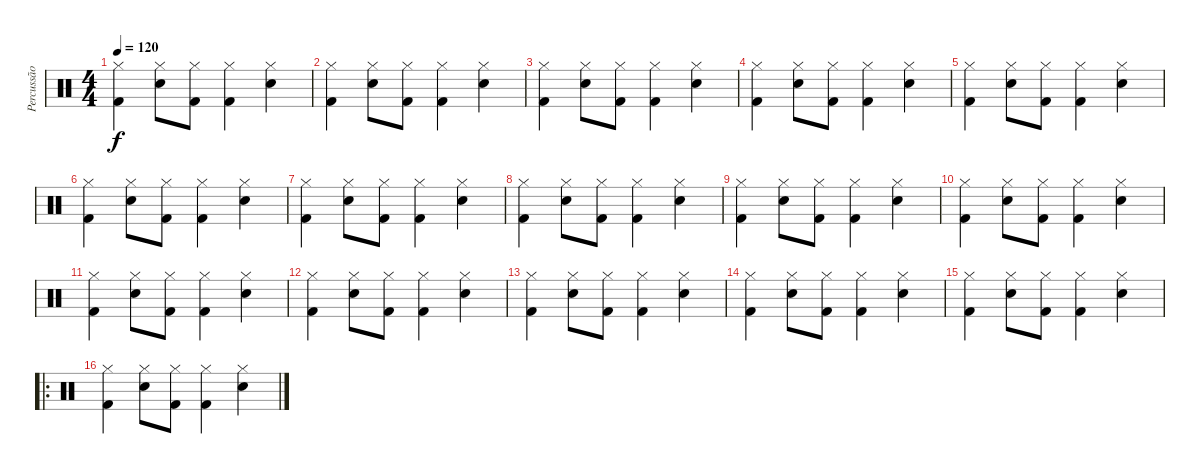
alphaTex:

\track ("Percussão" "Percussão") {instrument percussion}
\staff {score}
\articulation defaults
\ts (4 4)
\tempo 120
\clef neutral
\ks c
("Kick (hit) 2" "Hi-Hat (closed)").4{dy f} ("Snare (hit) 2" "Hi-Hat (closed)").8 ("Kick (hit) 2" "Hi-Hat (closed)").8 ("Kick (hit) 2" "Hi-Hat (closed)").4 ("Snare (hit) 2" "Hi-Hat (closed)").4 |
("Kick (hit) 2" "Hi-Hat (closed)").4 ("Snare (hit) 2" "Hi-Hat (closed)").8 ("Kick (hit) 2" "Hi-Hat (closed)").8 ("Kick (hit) 2" "Hi-Hat (closed)").4 ("Snare (hit) 2" "Hi-Hat (closed)").4 |
("Kick (hit) 2" "Hi-Hat (closed)").4 ("Snare (hit) 2" "Hi-Hat (closed)").8 ("Kick (hit) 2" "Hi-Hat (closed)").8 ("Kick (hit) 2" "Hi-Hat (closed)").4 ("Snare (hit) 2" "Hi-Hat (closed)").4 |
("Kick (hit) 2" "Hi-Hat (closed)").4 ("Snare (hit) 2" "Hi-Hat (closed)").8 ("Kick (hit) 2" "Hi-Hat (closed)").8 ("Kick (hit) 2" "Hi-Hat (closed)").4 ("Snare (hit) 2" "Hi-Hat (closed)").4 |
("Kick (hit) 2" "Hi-Hat (closed)").4 ("Snare (hit) 2" "Hi-Hat (closed)").8 ("Kick (hit) 2" "Hi-Hat (closed)").8 ("Kick (hit) 2" "Hi-Hat (closed)").4 ("Snare (hit) 2" "Hi-Hat (closed)").4 |
("Kick (hit) 2" "Hi-Hat (closed)").4 ("Snare (hit) 2" "Hi-Hat (closed)").8 ("Kick (hit) 2" "Hi-Hat (closed)").8 ("Kick (hit) 2" "Hi-Hat (closed)").4 ("Snare (hit) 2" "Hi-Hat (closed)").4 |
("Kick (hit) 2" "Hi-Hat (closed)").4 ("Snare (hit) 2" "Hi-Hat (closed)").8 ("Kick (hit) 2" "Hi-Hat (closed)").8 ("Kick (hit) 2" "Hi-Hat (closed)").4 ("Snare (hit) 2" "Hi-Hat (closed)").4 |
("Kick (hit) 2" "Hi-Hat (closed)").4 ("Snare (hit) 2" "Hi-Hat (closed)").8 ("Kick (hit) 2" "Hi-Hat (closed)").8 ("Kick (hit) 2" "Hi-Hat (closed)").4 ("Snare (hit) 2" "Hi-Hat (closed)").4 |
("Kick (hit) 2" "Hi-Hat (closed)").4 ("Snare (hit) 2" "Hi-Hat (closed)").8 ("Kick (hit) 2" "Hi-Hat (closed)").8 ("Kick (hit) 2" "Hi-Hat (closed)").4 ("Snare (hit) 2" "Hi-Hat (closed)").4 |
("Kick (hit) 2" "Hi-Hat (closed)").4 ("Snare (hit) 2" "Hi-Hat (closed)").8 ("Kick (hit) 2" "Hi-Hat (closed)").8 ("Kick (hit) 2" "Hi-Hat (closed)").4 ("Snare (hit) 2" "Hi-Hat (closed)").4 |
("Kick (hit) 2" "Hi-Hat (closed)").4 ("Snare (hit) 2" "Hi-Hat (closed)").8 ("Kick (hit) 2" "Hi-Hat (closed)").8 ("Kick (hit) 2" "Hi-Hat (closed)").4 ("Snare (hit) 2" "Hi-Hat (closed)").4 |
("Kick (hit) 2" "Hi-Hat (closed)").4 ("Snare (hit) 2" "Hi-Hat (closed)").8 ("Kick (hit) 2" "Hi-Hat (closed)").8 ("Kick (hit) 2" "Hi-Hat (closed)").4 ("Snare (hit) 2" "Hi-Hat (closed)").4 |
("Kick (hit) 2" "Hi-Hat (closed)").4 ("Snare (hit) 2" "Hi-Hat (closed)").8 ("Kick (hit) 2" "Hi-Hat (closed)").8 ("Kick (hit) 2" "Hi-Hat (closed)").4 ("Snare (hit) 2" "Hi-Hat (closed)").4 |
("Kick (hit) 2" "Hi-Hat (closed)").4 ("Snare (hit) 2" "Hi-Hat (closed)").8 ("Kick (hit) 2" "Hi-Hat (closed)").8 ("Kick (hit) 2" "Hi-Hat (closed)").4 ("Snare (hit) 2" "Hi-Hat (closed)").4 |
("Kick (hit) 2" "Hi-Hat (closed)").4 ("Snare (hit) 2" "Hi-Hat (closed)").8 ("Kick (hit) 2" "Hi-Hat (closed)").8 ("Kick (hit) 2" "Hi-Hat (closed)").4 ("Snare (hit) 2" "Hi-Hat (closed)").4 |
\ro
("Kick (hit) 2" "Hi-Hat (closed)").4 ("Snare (hit) 2" "Hi-Hat (closed)").8 ("Kick (hit) 2" "Hi-Hat (closed)").8 ("Kick (hit) 2" "Hi-Hat (closed)").4 ("Snare (hit) 2" "Hi-Hat (closed)").4
